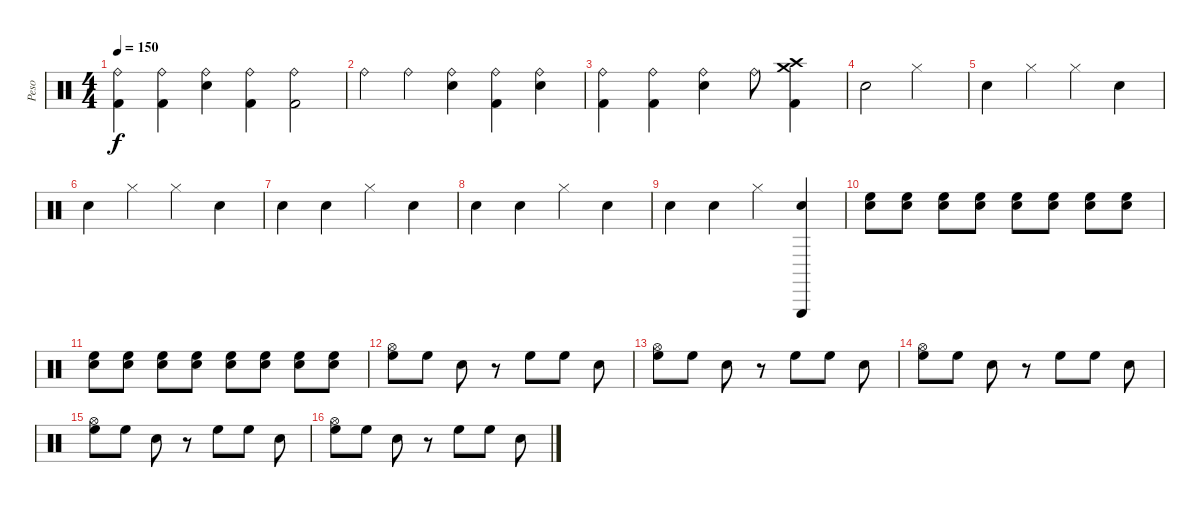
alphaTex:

\track ("Peso" "Peso") {instrument percussion}
\staff {score}
\articulation defaults
\ts (4 4)
\tempo 150
\clef neutral
\ks c
("Ride (bell)" "Kick (hit) 2").4{dy f} ("Ride (bell)" "Kick (hit) 2").4 ("Ride (bell)" "Snare (hit) 2").4 ("Ride (bell)" "Kick (hit) 2").4 ("Ride (bell)" "Kick (hit) 2").2 |
"Ride (bell)".4 "Ride (bell)".4 ("Ride (bell)" "Snare (hit) 2").4 ("Ride (bell)" "Kick (hit) 2").4 ("Ride (bell)" "Snare (hit) 2").4 |
("Ride (bell)" "Kick (hit) 2").4 ("Ride (bell)" "Kick (hit) 2").4 ("Ride (bell)" "Snare (hit) 2").4 "Ride (bell)".8 ("Crash medium (hit)" "Crash high (hit)" "Kick (hit) 2").4 |
"Snare (hit)"{x}.2 "Hi-Hat (closed)".2 |
"Snare (hit)"{x}.4 "Hi-Hat (closed)"{x}.4 "Hi-Hat (closed)".4 "Snare (hit)"{x}.4 |
"Snare (hit)"{x}.4 "Hi-Hat (closed)"{x}.4 "Hi-Hat (closed)".4 "Snare (hit)"{x}.4 |
"Snare (hit)"{x}.4 "Snare (hit)"{x}.4 "Hi-Hat (closed)".4 "Snare (hit)"{x}.4 |
"Snare (hit)"{x}.4 "Snare (hit)"{x}.4 "Hi-Hat (closed)".4 "Snare (hit)"{x}.4 |
"Snare (hit)"{x}.4 "Snare (hit)"{x}.4 "Hi-Hat (closed)".4 ("Triangle (hit)" "Snare (hit)"{x}).4 |
("High Floor Tom (hit)" "Snare (hit) 2").8{volume 6} ("High Floor Tom (hit)" "Snare (hit) 2").8 ("High Floor Tom (hit)" "Snare (hit) 2").8{volume 7} ("High Floor Tom (hit)" "Snare (hit) 2").8 ("High Floor Tom (hit)" "Snare (hit) 2").8{volume 10} ("High Floor Tom (hit)" "Snare (hit) 2").8 ("High Floor Tom (hit)" "Snare (hit) 2").8 ("High Floor Tom (hit)" "Snare (hit) 2").8{volume 12} |
("High Floor Tom (hit)" "Snare (hit) 2").8 ("High Floor Tom (hit)" "Snare (hit) 2").8{volume 16} ("High Floor Tom (hit)" "Snare (hit) 2").8 ("High Floor Tom (hit)" "Snare (hit) 2").8 ("High Floor Tom (hit)" "Snare (hit) 2").8 ("High Floor Tom (hit)" "Snare (hit) 2").8 ("High Floor Tom (hit)" "Snare (hit) 2").8 ("High Floor Tom (hit)" "Snare (hit) 2").8 |
("Hi-Hat (open)" "High Floor Tom (hit)").8 "High Floor Tom (hit)".8 "Snare (hit) 2".8 r.8 "High Floor Tom (hit)".8 "High Floor Tom (hit)".8 "Snare (hit) 2".8 |
("Hi-Hat (open)" "High Floor Tom (hit)").8 "High Floor Tom (hit)".8 "Snare (hit) 2".8 r.8 "High Floor Tom (hit)".8 "High Floor Tom (hit)".8 "Snare (hit) 2".8 |
("Hi-Hat (open)" "High Floor Tom (hit)").8 "High Floor Tom (hit)".8 "Snare (hit) 2".8 r.8 "High Floor Tom (hit)".8 "High Floor Tom (hit)".8 "Snare (hit) 2".8 |
("Hi-Hat (open)" "High Floor Tom (hit)").8 "High Floor Tom (hit)".8 "Snare (hit) 2".8 r.8 "High Floor Tom (hit)".8 "High Floor Tom (hit)".8 "Snare (hit) 2".8 |
("Hi-Hat (open)" "High Floor Tom (hit)").8 "High Floor Tom (hit)".8 "Snare (hit) 2".8 r.8 "High Floor Tom (hit)".8 "High Floor Tom (hit)".8 "Snare (hit) 2".8
